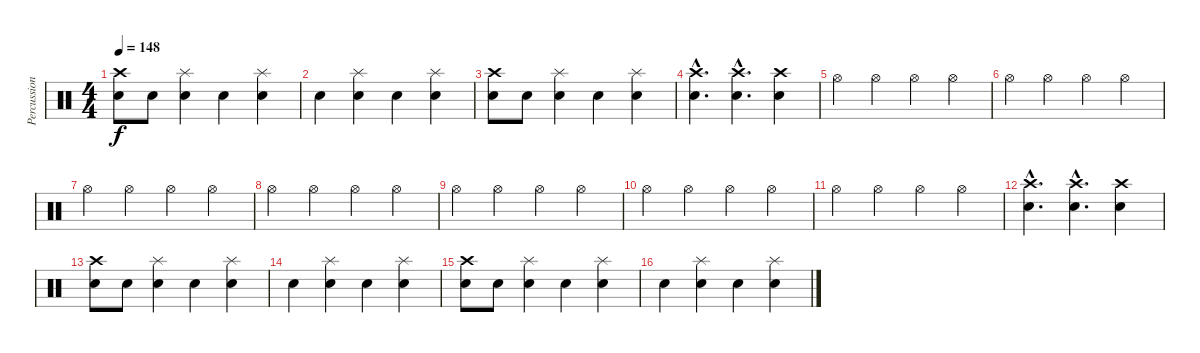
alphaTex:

\track ("Percussions" "Percussion") {instrument percussion}
\staff {score}
\articulation defaults
\ts (4 4)
\tempo 148
\clef neutral
\ks c
("Crash high (hit)" "Snare (hit) 2").8{dy f} "Snare (hit) 2".8 ("Splash (hit)" "Electric Snare (hit)").4 "Snare (hit) 2".4 ("Splash (hit)" "Electric Snare (hit)").4 |
"Snare (hit) 2".4 ("Splash (hit)" "Electric Snare (hit)").4 "Snare (hit) 2".4 ("Splash (hit)" "Electric Snare (hit)").4 |
("Crash high (hit)" "Snare (hit) 2").8 "Snare (hit) 2".8 ("Splash (hit)" "Electric Snare (hit)").4 "Snare (hit) 2".4 ("Splash (hit)" "Electric Snare (hit)").4 |
("Crash high (hit)"{hac} "Snare (hit) 2"{hac}).4{d} ("Crash high (hit)"{hac} "Snare (hit) 2"{hac}).4{d} ("Crash high (hit)" "Snare (hit) 2").4 |
"Hi-Hat (open)".4 "Hi-Hat (open)".4 "Hi-Hat (open)".4 "Hi-Hat (open)".4 |
"Hi-Hat (open)".4 "Hi-Hat (open)".4 "Hi-Hat (open)".4 "Hi-Hat (open)".4 |
"Hi-Hat (open)".4 "Hi-Hat (open)".4 "Hi-Hat (open)".4 "Hi-Hat (open)".4 |
"Hi-Hat (open)".4 "Hi-Hat (open)".4 "Hi-Hat (open)".4 "Hi-Hat (open)".4 |
"Hi-Hat (open)".4 "Hi-Hat (open)".4 "Hi-Hat (open)".4 "Hi-Hat (open)".4 |
"Hi-Hat (open)".4 "Hi-Hat (open)".4 "Hi-Hat (open)".4 "Hi-Hat (open)".4 |
"Hi-Hat (open)".4 "Hi-Hat (open)".4 "Hi-Hat (open)".4 "Hi-Hat (open)".4 |
("Crash high (hit)"{hac} "Snare (hit) 2"{hac}).4{d} ("Crash high (hit)"{hac} "Snare (hit) 2"{hac}).4{d} ("Crash high (hit)" "Snare (hit) 2").4 |
("Crash high (hit)" "Snare (hit) 2").8 "Snare (hit) 2".8 ("Splash (hit)" "Electric Snare (hit)").4 "Snare (hit) 2".4 ("Splash (hit)" "Electric Snare (hit)").4 |
"Snare (hit) 2".4 ("Splash (hit)" "Electric Snare (hit)").4 "Snare (hit) 2".4 ("Splash (hit)" "Electric Snare (hit)").4 |
("Crash high (hit)" "Snare (hit) 2").8 "Snare (hit) 2".8 ("Splash (hit)" "Electric Snare (hit)").4 "Snare (hit) 2".4 ("Splash (hit)" "Electric Snare (hit)").4 |
"Snare (hit) 2".4 ("Splash (hit)" "Electric Snare (hit)").4 "Snare (hit) 2".4 ("Splash (hit)" "Electric Snare (hit)").4
